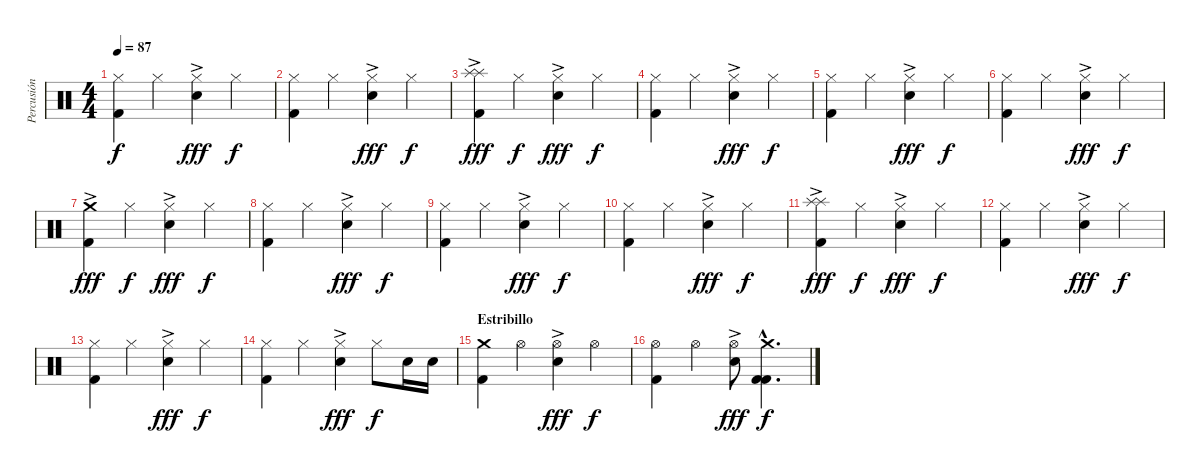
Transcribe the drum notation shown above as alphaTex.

\track ("Percusión" "Percusión") {instrument percussion}
\staff {score}
\articulation defaults
\ts (4 4)
\tempo 87
\clef neutral
\ks c
("Hi-Hat (closed)" "Kick (hit) 2").4{dy f} "Hi-Hat (closed)".4 ("Hi-Hat (closed)"{ac} "Snare (hit) 2"{ac}).4{dy fff} "Hi-Hat (closed)".4{dy f} |
("Hi-Hat (closed)" "Kick (hit) 2").4 "Hi-Hat (closed)".4 ("Hi-Hat (closed)"{ac} "Snare (hit) 2"{ac}).4{dy fff} "Hi-Hat (closed)".4{dy f} |
("Splash (hit)"{ac} "Splash (hit)" "Kick (hit) 2").4{dy fff} "Hi-Hat (closed)".4{dy f} ("Hi-Hat (closed)" "Snare (hit) 2"{ac}).4{dy fff} "Hi-Hat (closed)".4{dy f} |
("Hi-Hat (closed)" "Kick (hit) 2").4 "Hi-Hat (closed)".4 ("Hi-Hat (closed)" "Snare (hit) 2"{ac}).4{dy fff} "Hi-Hat (closed)".4{dy f} |
("Hi-Hat (closed)" "Kick (hit) 2").4 "Hi-Hat (closed)".4 ("Hi-Hat (closed)"{ac} "Snare (hit) 2"{ac}).4{dy fff} "Hi-Hat (closed)".4{dy f} |
("Hi-Hat (closed)" "Kick (hit) 2").4 "Hi-Hat (closed)".4 ("Hi-Hat (closed)"{ac} "Snare (hit) 2"{ac}).4{dy fff} "Hi-Hat (closed)".4{dy f} |
("Crash medium (hit)"{ac} "Kick (hit) 2").4{dy fff} "Hi-Hat (closed)".4{dy f} ("Hi-Hat (closed)" "Snare (hit) 2"{ac}).4{dy fff} "Hi-Hat (closed)".4{dy f} |
("Hi-Hat (closed)" "Kick (hit) 2").4 "Hi-Hat (closed)".4 ("Hi-Hat (closed)" "Snare (hit) 2"{ac}).4{dy fff} "Hi-Hat (closed)".4{dy f} |
("Hi-Hat (closed)" "Kick (hit) 2").4 "Hi-Hat (closed)".4 ("Hi-Hat (closed)"{ac} "Snare (hit) 2"{ac}).4{dy fff} "Hi-Hat (closed)".4{dy f} |
("Hi-Hat (closed)" "Kick (hit) 2").4 "Hi-Hat (closed)".4 ("Hi-Hat (closed)"{ac} "Snare (hit) 2"{ac}).4{dy fff} "Hi-Hat (closed)".4{dy f} |
("Splash (hit)"{ac} "Splash (hit)" "Kick (hit) 2").4{dy fff} "Hi-Hat (closed)".4{dy f} ("Hi-Hat (closed)" "Snare (hit) 2"{ac}).4{dy fff} "Hi-Hat (closed)".4{dy f} |
("Hi-Hat (closed)" "Kick (hit) 2").4 "Hi-Hat (closed)".4 ("Hi-Hat (closed)" "Snare (hit) 2"{ac}).4{dy fff} "Hi-Hat (closed)".4{dy f} |
("Hi-Hat (closed)" "Kick (hit) 2").4 "Hi-Hat (closed)".4 ("Hi-Hat (closed)"{ac} "Snare (hit) 2"{ac}).4{dy fff} "Hi-Hat (closed)".4{dy f} |
("Hi-Hat (closed)" "Kick (hit) 2").4 "Hi-Hat (closed)".4 ("Hi-Hat (closed)"{ac} "Snare (hit) 2"{ac}).4{dy fff} "Hi-Hat (closed)".8{dy f} "Snare (hit) 2".16 "Snare (hit) 2".16 |
\section ("" "Estribillo")
("Crash medium (hit)" "Kick (hit) 2").4 "Hi-Hat (open)".4 ("Hi-Hat (open)" "Snare (hit) 2"{ac}).4{dy fff} "Hi-Hat (open)".4{dy f} |
("Hi-Hat (open)" "Kick (hit) 2").4 "Hi-Hat (open)".4 ("Hi-Hat (open)" "Snare (hit) 2"{ac}).8{dy fff} ("Crash medium (hit)"{hac} "Kick (hit) 2"{hac} "Kick (hit) 2"{hac}).4{d dy f}
